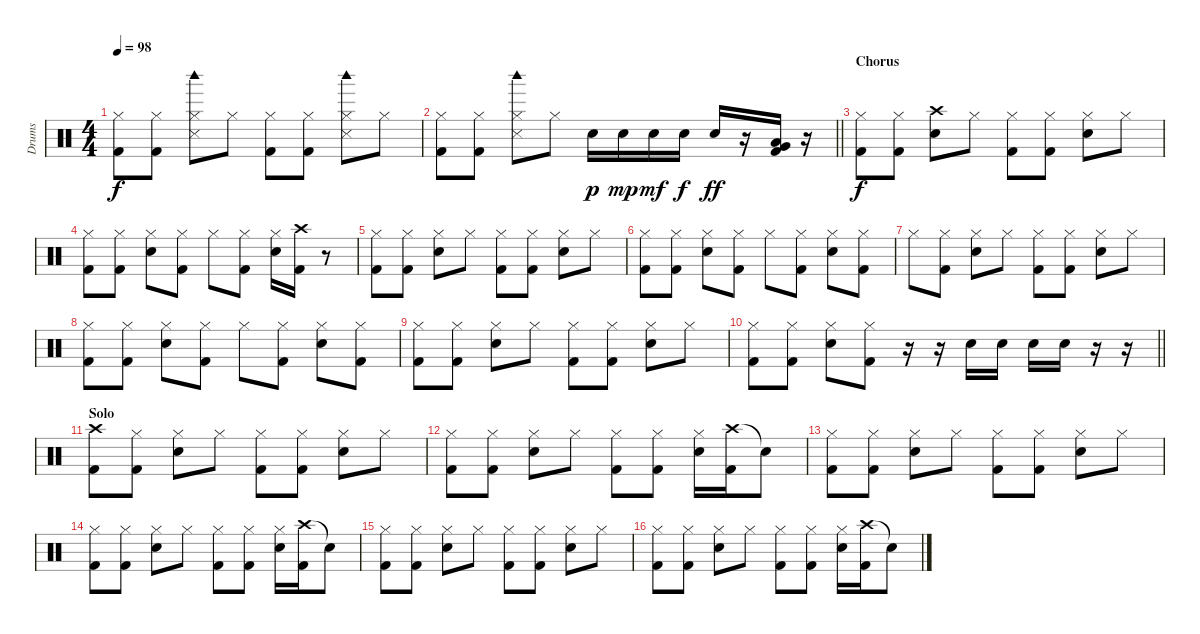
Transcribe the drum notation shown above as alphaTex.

\track ("Drums" "Drums") {instrument percussion}
\staff {score}
\articulation defaults
\ts (4 4)
\tempo 98
\clef neutral
\ks c
("Hi-Hat (closed)" "Kick (hit) 2").8{dy f} ("Hi-Hat (closed)" "Kick (hit) 2").8 ("Hi-Hat (closed)" "Metronome (hit)" "Woodblock high (hit)").8 "Hi-Hat (closed)".8 ("Hi-Hat (closed)" "Kick (hit) 2").8 ("Hi-Hat (closed)" "Kick (hit) 2").8 ("Hi-Hat (closed)" "Metronome (hit)" "Woodblock high (hit)").8 "Hi-Hat (closed)".8 |
\barLineRight lightlight
("Hi-Hat (closed)" "Kick (hit) 2").8 ("Hi-Hat (closed)" "Kick (hit) 2").8 ("Hi-Hat (closed)" "Metronome (hit)" "Woodblock high (hit)").8 "Hi-Hat (closed)".8 "Snare (hit) 2".16{dy p} "Snare (hit) 2".16{dy mp} "Snare (hit) 2".16{dy mf} "Snare (hit) 2".16{dy f} "Snare (hit) 2".16{dy ff} r.16 ("Very Low Tom (hit)" "Low Floor Tom (hit)" "Kick (hit) 2").16 r.16 |
\section ("" "Chorus")
("Hi-Hat (closed)" "Kick (hit) 2").8{dy f} ("Hi-Hat (closed)" "Kick (hit) 2").8 ("Crash high (hit)" "Snare (hit) 2").8 "Hi-Hat (closed)".8 ("Hi-Hat (closed)" "Kick (hit) 2").8 ("Hi-Hat (closed)" "Kick (hit) 2").8 ("Hi-Hat (closed)" "Snare (hit) 2").8 "Hi-Hat (closed)".8 |
("Hi-Hat (closed)" "Kick (hit) 2").8 ("Hi-Hat (closed)" "Kick (hit) 2").8 ("Hi-Hat (closed)" "Snare (hit) 2").8 ("Hi-Hat (closed)" "Kick (hit) 2").8 "Hi-Hat (closed)".8 ("Hi-Hat (closed)" "Kick (hit) 2").8 ("Hi-Hat (closed)" "Snare (hit) 2").16 ("Crash high (hit)" "Kick (hit) 2").16 r.8 |
("Hi-Hat (closed)" "Kick (hit) 2").8 ("Hi-Hat (closed)" "Kick (hit) 2").8 ("Hi-Hat (closed)" "Snare (hit) 2").8 "Hi-Hat (closed)".8 ("Hi-Hat (closed)" "Kick (hit) 2").8 ("Hi-Hat (closed)" "Kick (hit) 2").8 ("Hi-Hat (closed)" "Snare (hit) 2").8 "Hi-Hat (closed)".8 |
("Hi-Hat (closed)" "Kick (hit) 2").8 ("Hi-Hat (closed)" "Kick (hit) 2").8 ("Hi-Hat (closed)" "Snare (hit) 2").8 ("Hi-Hat (closed)" "Kick (hit) 2").8 "Hi-Hat (closed)".8 ("Hi-Hat (closed)" "Kick (hit) 2").8 ("Hi-Hat (closed)" "Snare (hit) 2").8 ("Hi-Hat (closed)" "Kick (hit) 2").8 |
"Hi-Hat (closed)".8 ("Hi-Hat (closed)" "Kick (hit) 2").8 ("Hi-Hat (closed)" "Snare (hit) 2").8 "Hi-Hat (closed)".8 ("Hi-Hat (closed)" "Kick (hit) 2").8 ("Hi-Hat (closed)" "Kick (hit) 2").8 ("Hi-Hat (closed)" "Snare (hit) 2").8 "Hi-Hat (closed)".8 |
("Hi-Hat (closed)" "Kick (hit) 2").8 ("Hi-Hat (closed)" "Kick (hit) 2").8 ("Hi-Hat (closed)" "Snare (hit) 2").8 ("Hi-Hat (closed)" "Kick (hit) 2").8 "Hi-Hat (closed)".8 ("Hi-Hat (closed)" "Kick (hit) 2").8 ("Hi-Hat (closed)" "Snare (hit) 2").8 ("Hi-Hat (closed)" "Kick (hit) 2").8 |
("Hi-Hat (closed)" "Kick (hit) 2").8 ("Hi-Hat (closed)" "Kick (hit) 2").8 ("Hi-Hat (closed)" "Snare (hit) 2").8 "Hi-Hat (closed)".8 ("Hi-Hat (closed)" "Kick (hit) 2").8 ("Hi-Hat (closed)" "Kick (hit) 2").8 ("Hi-Hat (closed)" "Snare (hit) 2").8 "Hi-Hat (closed)".8 |
\barLineRight lightlight
("Hi-Hat (closed)" "Kick (hit) 2").8 ("Hi-Hat (closed)" "Kick (hit) 2").8 ("Hi-Hat (closed)" "Snare (hit) 2").8 ("Hi-Hat (closed)" "Kick (hit) 2").8 r.16 r.16 "Snare (hit) 2".16 "Snare (hit) 2".16 "Snare (hit) 2".16 "Snare (hit) 2".16 r.16 r.16 |
\section ("" "Solo")
("Crash high (hit)" "Kick (hit) 2").8 ("Hi-Hat (closed)" "Kick (hit) 2").8 ("Hi-Hat (closed)" "Snare (hit) 2").8 "Hi-Hat (closed)".8 ("Hi-Hat (closed)" "Kick (hit) 2").8 ("Hi-Hat (closed)" "Kick (hit) 2").8 ("Hi-Hat (closed)" "Snare (hit) 2").8 "Hi-Hat (closed)".8 |
("Hi-Hat (closed)" "Kick (hit) 2").8 ("Hi-Hat (closed)" "Kick (hit) 2").8 ("Hi-Hat (closed)" "Snare (hit) 2").8 "Hi-Hat (closed)".8 ("Hi-Hat (closed)" "Kick (hit) 2").8 ("Hi-Hat (closed)" "Kick (hit) 2").8 ("Hi-Hat (closed)" "Snare (hit) 2").16 ("Crash high (hit)" "Kick (hit) 2").16 "Snare (hit)"{t}.8 |
("Hi-Hat (closed)" "Kick (hit) 2").8 ("Hi-Hat (closed)" "Kick (hit) 2").8 ("Hi-Hat (closed)" "Snare (hit) 2").8 "Hi-Hat (closed)".8 ("Hi-Hat (closed)" "Kick (hit) 2").8 ("Hi-Hat (closed)" "Kick (hit) 2").8 ("Hi-Hat (closed)" "Snare (hit) 2").8 "Hi-Hat (closed)".8 |
("Hi-Hat (closed)" "Kick (hit) 2").8 ("Hi-Hat (closed)" "Kick (hit) 2").8 ("Hi-Hat (closed)" "Snare (hit) 2").8 "Hi-Hat (closed)".8 ("Hi-Hat (closed)" "Kick (hit) 2").8 ("Hi-Hat (closed)" "Kick (hit) 2").8 ("Hi-Hat (closed)" "Snare (hit) 2").16 ("Crash high (hit)" "Kick (hit) 2").16 "Snare (hit)"{t}.8 |
("Hi-Hat (closed)" "Kick (hit) 2").8 ("Hi-Hat (closed)" "Kick (hit) 2").8 ("Hi-Hat (closed)" "Snare (hit) 2").8 "Hi-Hat (closed)".8 ("Hi-Hat (closed)" "Kick (hit) 2").8 ("Hi-Hat (closed)" "Kick (hit) 2").8 ("Hi-Hat (closed)" "Snare (hit) 2").8 "Hi-Hat (closed)".8 |
("Hi-Hat (closed)" "Kick (hit) 2").8 ("Hi-Hat (closed)" "Kick (hit) 2").8 ("Hi-Hat (closed)" "Snare (hit) 2").8 "Hi-Hat (closed)".8 ("Hi-Hat (closed)" "Kick (hit) 2").8 ("Hi-Hat (closed)" "Kick (hit) 2").8 ("Hi-Hat (closed)" "Snare (hit) 2").16 ("Crash high (hit)" "Kick (hit) 2").16 "Snare (hit)"{t}.8
